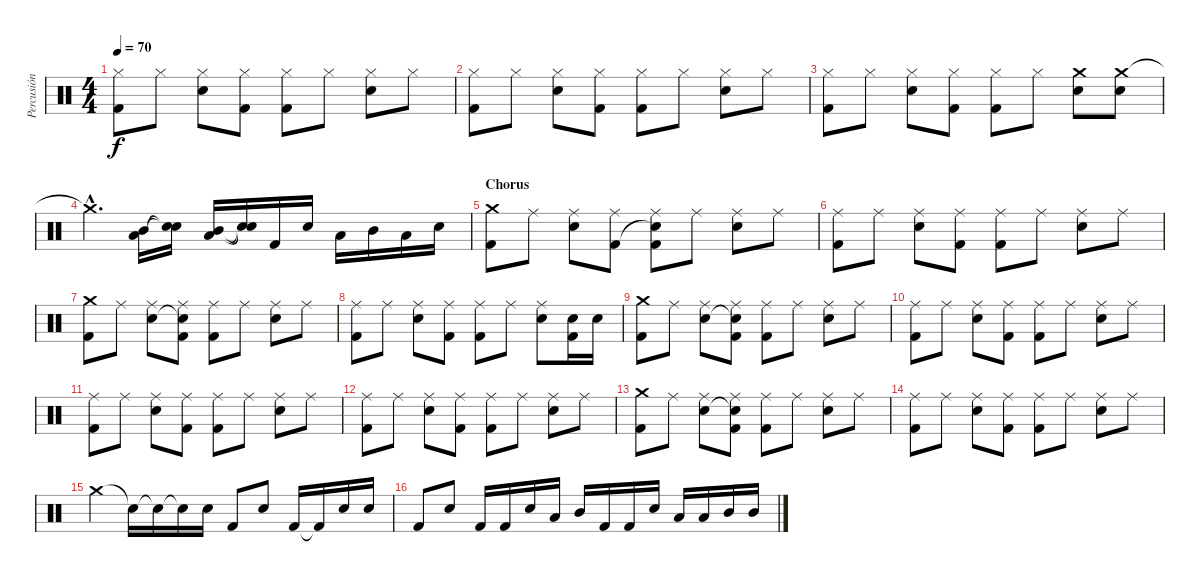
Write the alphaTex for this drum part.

\track ("Percusión" "Percusión") {instrument percussion}
\staff {score}
\articulation defaults
\ts (4 4)
\tempo 70
\clef neutral
\ks c
("Hi-Hat (closed)" "Kick (hit) 2").8{dy f} "Hi-Hat (closed)".8 ("Hi-Hat (closed)" "Snare (hit) 2").8 ("Hi-Hat (closed)" "Kick (hit) 2").8 ("Hi-Hat (closed)" "Kick (hit) 2").8 "Hi-Hat (closed)".8 ("Hi-Hat (closed)" "Snare (hit) 2").8 "Hi-Hat (closed)".8 |
("Hi-Hat (closed)" "Kick (hit) 2").8 "Hi-Hat (closed)".8 ("Hi-Hat (closed)" "Snare (hit) 2").8 ("Hi-Hat (closed)" "Kick (hit) 2").8 ("Hi-Hat (closed)" "Kick (hit) 2").8 "Hi-Hat (closed)".8 ("Hi-Hat (closed)" "Snare (hit) 2").8 "Hi-Hat (closed)".8 |
("Hi-Hat (closed)" "Kick (hit) 2").8 "Hi-Hat (closed)".8 ("Hi-Hat (closed)" "Snare (hit) 2").8 ("Hi-Hat (closed)" "Kick (hit) 2").8 ("Hi-Hat (closed)" "Kick (hit) 2").8 "Hi-Hat (closed)".8 ("Crash medium (hit)" "Snare (hit) 2").8 ("Crash medium (hit)" "Snare (hit) 2").8 |
"Crash medium (hit)"{hac t}.4{d} ("Low Tom (hit)" "Mid Tom (hit)").16 ("Snare (hit)"{t} "Snare (hit)"{t}).16 ("Low Tom (hit)" "Mid Tom (hit)").16 ("Snare (hit)"{t} "Snare (hit)"{t}).16 "Kick (hit) 2".16 "Snare (hit) 2".16 "Low Tom (hit)".16 "Mid Tom (hit)".16 "Low Tom (hit)".16 "Snare (hit) 2".16 |
\section ("" "Chorus")
("Crash medium (hit)" "Kick (hit) 2").8 "Ride (middle)".8 ("Ride (middle)" "Snare (hit) 2").8 ("Ride (middle)" "Kick (hit) 2").8 ("Ride (middle)" "Snare (hit)"{t} "Kick (hit) 2").8 "Ride (middle)".8 ("Ride (middle)" "Snare (hit) 2").8 "Ride (middle)".8 |
("Ride (middle)" "Kick (hit) 2").8 "Ride (middle)".8 ("Ride (middle)" "Snare (hit) 2").8 ("Ride (middle)" "Kick (hit) 2").8 ("Ride (middle)" "Kick (hit) 2").8 "Ride (middle)".8 ("Ride (middle)" "Snare (hit) 2").8 "Ride (middle)".8 |
("Crash medium (hit)" "Kick (hit) 2").8 "Ride (middle)".8 ("Ride (middle)" "Snare (hit) 2").8 ("Ride (middle)" "Snare (hit)"{t} "Kick (hit) 2").8 ("Ride (middle)" "Kick (hit) 2").8 "Ride (middle)".8 ("Ride (middle)" "Snare (hit) 2").8 "Ride (middle)".8 |
("Ride (middle)" "Kick (hit) 2").8 "Ride (middle)".8 ("Ride (middle)" "Snare (hit) 2").8 ("Ride (middle)" "Kick (hit) 2").8 ("Ride (middle)" "Kick (hit) 2").8 "Ride (middle)".8 ("Ride (middle)" "Snare (hit) 2").8 ("Snare (hit) 2" "Kick (hit) 2").16 "Snare (hit) 2".16 |
("Crash medium (hit)" "Kick (hit) 2").8 "Ride (middle)".8 ("Ride (middle)" "Snare (hit) 2").8 ("Ride (middle)" "Snare (hit)"{t} "Kick (hit) 2").8 ("Ride (middle)" "Kick (hit) 2").8 "Ride (middle)".8 ("Ride (middle)" "Snare (hit) 2").8 "Ride (middle)".8 |
("Ride (middle)" "Kick (hit) 2").8 "Ride (middle)".8 ("Ride (middle)" "Snare (hit) 2").8 ("Ride (middle)" "Kick (hit) 2").8 ("Ride (middle)" "Kick (hit) 2").8 "Ride (middle)".8 ("Ride (middle)" "Snare (hit) 2").8 "Ride (middle)".8 |
("Ride (middle)" "Kick (hit) 2").8 "Ride (middle)".8 ("Ride (middle)" "Snare (hit) 2").8 ("Ride (middle)" "Kick (hit) 2").8 ("Ride (middle)" "Kick (hit) 2").8 "Ride (middle)".8 ("Ride (middle)" "Snare (hit) 2").8 "Ride (middle)".8 |
("Ride (middle)" "Kick (hit) 2").8 "Ride (middle)".8 ("Ride (middle)" "Snare (hit) 2").8 ("Ride (middle)" "Kick (hit) 2").8 ("Ride (middle)" "Kick (hit) 2").8 "Ride (middle)".8 ("Ride (middle)" "Snare (hit) 2").8 "Ride (middle)".8 |
("Crash medium (hit)" "Kick (hit) 2").8 "Ride (middle)".8 ("Ride (middle)" "Snare (hit) 2").8 ("Ride (middle)" "Snare (hit)"{t} "Kick (hit) 2").8 ("Ride (middle)" "Kick (hit) 2").8 "Ride (middle)".8 ("Ride (middle)" "Snare (hit) 2").8 "Ride (middle)".8 |
("Ride (middle)" "Kick (hit) 2").8 "Ride (middle)".8 ("Ride (middle)" "Snare (hit) 2").8 ("Ride (middle)" "Kick (hit) 2").8 ("Ride (middle)" "Kick (hit) 2").8 "Ride (middle)".8 ("Ride (middle)" "Snare (hit) 2").8 "Ride (middle)".8 |
"Crash medium (hit)".4 "Snare (hit)"{t}.16 "Snare (hit)"{t}.16 "Snare (hit)"{t}.16 "Snare (hit) 2".16 "Kick (hit) 2".8 "Snare (hit) 2".8 "Kick (hit) 2".16 "Kick (hit) 2"{t}.16 "Snare (hit) 2".16 "Snare (hit) 2".16 |
"Kick (hit) 2".8 "Snare (hit) 2".8 "Kick (hit) 2".16 "Kick (hit) 2".16 "Snare (hit) 2".16 "Low Tom (hit)".16 "Mid Tom (hit)".16 "Kick (hit) 2".16 "Kick (hit) 2".16 "Snare (hit) 2".16 "Low Tom (hit)".16 "Low Tom (hit)".16 "Mid Tom (hit)".16 "Mid Tom (hit)".16
